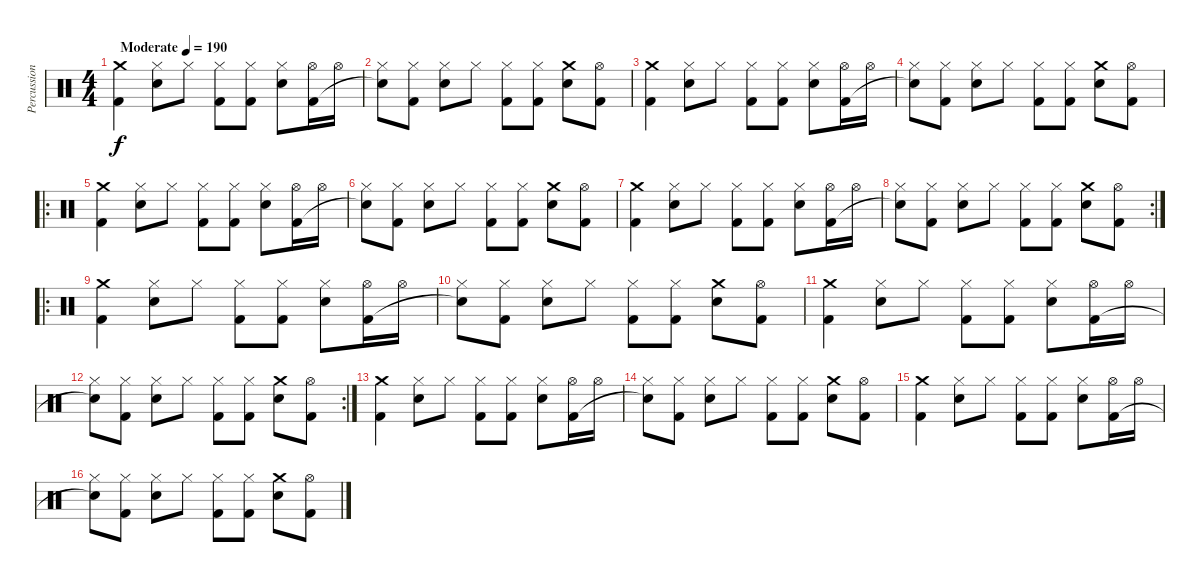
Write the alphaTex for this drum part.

\track ("Percussion" "Percussion") {instrument percussion}
\staff {score}
\articulation defaults
\ts (4 4)
\tempo (190 "Moderate")
\clef neutral
\ks c
("Crash medium (hit)" "Kick (hit) 2").4{dy f} ("Hi-Hat (closed)" "Snare (hit) 2").8 "Hi-Hat (closed)".8 ("Hi-Hat (closed)" "Kick (hit) 2").8 ("Hi-Hat (closed)" "Kick (hit) 2").8 ("Hi-Hat (closed)" "Snare (hit) 2").8 ("Hi-Hat (open)" "Kick (hit) 2").16 "Hi-Hat (open)".16 |
("Hi-Hat (closed)" "Snare (hit)"{t}).8 ("Hi-Hat (closed)" "Kick (hit) 2").8 ("Hi-Hat (closed)" "Snare (hit) 2").8 "Hi-Hat (closed)".8 ("Hi-Hat (closed)" "Kick (hit) 2").8 ("Hi-Hat (closed)" "Kick (hit) 2").8 ("Crash medium (hit)" "Snare (hit) 2").8 ("Hi-Hat (open)" "Kick (hit) 2").8 |
("Crash medium (hit)" "Kick (hit) 2").4 ("Hi-Hat (closed)" "Snare (hit) 2").8 "Hi-Hat (closed)".8 ("Hi-Hat (closed)" "Kick (hit) 2").8 ("Hi-Hat (closed)" "Kick (hit) 2").8 ("Hi-Hat (closed)" "Snare (hit) 2").8 ("Hi-Hat (open)" "Kick (hit) 2").16 "Hi-Hat (open)".16 |
("Hi-Hat (closed)" "Snare (hit)"{t}).8 ("Hi-Hat (closed)" "Kick (hit) 2").8 ("Hi-Hat (closed)" "Snare (hit) 2").8 "Hi-Hat (closed)".8 ("Hi-Hat (closed)" "Kick (hit) 2").8 ("Hi-Hat (closed)" "Kick (hit) 2").8 ("Crash medium (hit)" "Snare (hit) 2").8 ("Hi-Hat (open)" "Kick (hit) 2").8 |
\ro
("Crash medium (hit)" "Kick (hit) 2").4 ("Hi-Hat (closed)" "Snare (hit) 2").8 "Hi-Hat (closed)".8 ("Hi-Hat (closed)" "Kick (hit) 2").8 ("Hi-Hat (closed)" "Kick (hit) 2").8 ("Hi-Hat (closed)" "Snare (hit) 2").8 ("Hi-Hat (open)" "Kick (hit) 2").16 "Hi-Hat (open)".16 |
("Hi-Hat (closed)" "Snare (hit)"{t}).8 ("Hi-Hat (closed)" "Kick (hit) 2").8 ("Hi-Hat (closed)" "Snare (hit) 2").8 "Hi-Hat (closed)".8 ("Hi-Hat (closed)" "Kick (hit) 2").8 ("Hi-Hat (closed)" "Kick (hit) 2").8 ("Crash medium (hit)" "Snare (hit) 2").8 ("Hi-Hat (open)" "Kick (hit) 2").8 |
("Crash medium (hit)" "Kick (hit) 2").4 ("Hi-Hat (closed)" "Snare (hit) 2").8 "Hi-Hat (closed)".8 ("Hi-Hat (closed)" "Kick (hit) 2").8 ("Hi-Hat (closed)" "Kick (hit) 2").8 ("Hi-Hat (closed)" "Snare (hit) 2").8 ("Hi-Hat (open)" "Kick (hit) 2").16 "Hi-Hat (open)".16 |
\rc 2
("Hi-Hat (closed)" "Snare (hit)"{t}).8 ("Hi-Hat (closed)" "Kick (hit) 2").8 ("Hi-Hat (closed)" "Snare (hit) 2").8 "Hi-Hat (closed)".8 ("Hi-Hat (closed)" "Kick (hit) 2").8 ("Hi-Hat (closed)" "Kick (hit) 2").8 ("Crash medium (hit)" "Snare (hit) 2").8 ("Hi-Hat (open)" "Kick (hit) 2").8 |
\ro
("Crash medium (hit)" "Kick (hit) 2").4 ("Hi-Hat (closed)" "Snare (hit) 2").8 "Hi-Hat (closed)".8 ("Hi-Hat (closed)" "Kick (hit) 2").8 ("Hi-Hat (closed)" "Kick (hit) 2").8 ("Hi-Hat (closed)" "Snare (hit) 2").8 ("Hi-Hat (open)" "Kick (hit) 2").16 "Hi-Hat (open)".16 |
("Hi-Hat (closed)" "Snare (hit)"{t}).8 ("Hi-Hat (closed)" "Kick (hit) 2").8 ("Hi-Hat (closed)" "Snare (hit) 2").8 "Hi-Hat (closed)".8 ("Hi-Hat (closed)" "Kick (hit) 2").8 ("Hi-Hat (closed)" "Kick (hit) 2").8 ("Crash medium (hit)" "Snare (hit) 2").8 ("Hi-Hat (open)" "Kick (hit) 2").8 |
("Crash medium (hit)" "Kick (hit) 2").4 ("Hi-Hat (closed)" "Snare (hit) 2").8 "Hi-Hat (closed)".8 ("Hi-Hat (closed)" "Kick (hit) 2").8 ("Hi-Hat (closed)" "Kick (hit) 2").8 ("Hi-Hat (closed)" "Snare (hit) 2").8 ("Hi-Hat (open)" "Kick (hit) 2").16 "Hi-Hat (open)".16 |
\rc 2
("Hi-Hat (closed)" "Snare (hit)"{t}).8 ("Hi-Hat (closed)" "Kick (hit) 2").8 ("Hi-Hat (closed)" "Snare (hit) 2").8 "Hi-Hat (closed)".8 ("Hi-Hat (closed)" "Kick (hit) 2").8 ("Hi-Hat (closed)" "Kick (hit) 2").8 ("Crash medium (hit)" "Snare (hit) 2").8 ("Hi-Hat (open)" "Kick (hit) 2").8 |
("Crash medium (hit)" "Kick (hit) 2").4 ("Hi-Hat (closed)" "Snare (hit) 2").8 "Hi-Hat (closed)".8 ("Hi-Hat (closed)" "Kick (hit) 2").8 ("Hi-Hat (closed)" "Kick (hit) 2").8 ("Hi-Hat (closed)" "Snare (hit) 2").8 ("Hi-Hat (open)" "Kick (hit) 2").16 "Hi-Hat (open)".16 |
("Hi-Hat (closed)" "Snare (hit)"{t}).8 ("Hi-Hat (closed)" "Kick (hit) 2").8 ("Hi-Hat (closed)" "Snare (hit) 2").8 "Hi-Hat (closed)".8 ("Hi-Hat (closed)" "Kick (hit) 2").8 ("Hi-Hat (closed)" "Kick (hit) 2").8 ("Crash medium (hit)" "Snare (hit) 2").8 ("Hi-Hat (open)" "Kick (hit) 2").8 |
("Crash medium (hit)" "Kick (hit) 2").4 ("Hi-Hat (closed)" "Snare (hit) 2").8 "Hi-Hat (closed)".8 ("Hi-Hat (closed)" "Kick (hit) 2").8 ("Hi-Hat (closed)" "Kick (hit) 2").8 ("Hi-Hat (closed)" "Snare (hit) 2").8 ("Hi-Hat (open)" "Kick (hit) 2").16 "Hi-Hat (open)".16 |
("Hi-Hat (closed)" "Snare (hit)"{t}).8 ("Hi-Hat (closed)" "Kick (hit) 2").8 ("Hi-Hat (closed)" "Snare (hit) 2").8 "Hi-Hat (closed)".8 ("Hi-Hat (closed)" "Kick (hit) 2").8 ("Hi-Hat (closed)" "Kick (hit) 2").8 ("Crash medium (hit)" "Snare (hit) 2").8 ("Hi-Hat (open)" "Kick (hit) 2").8
